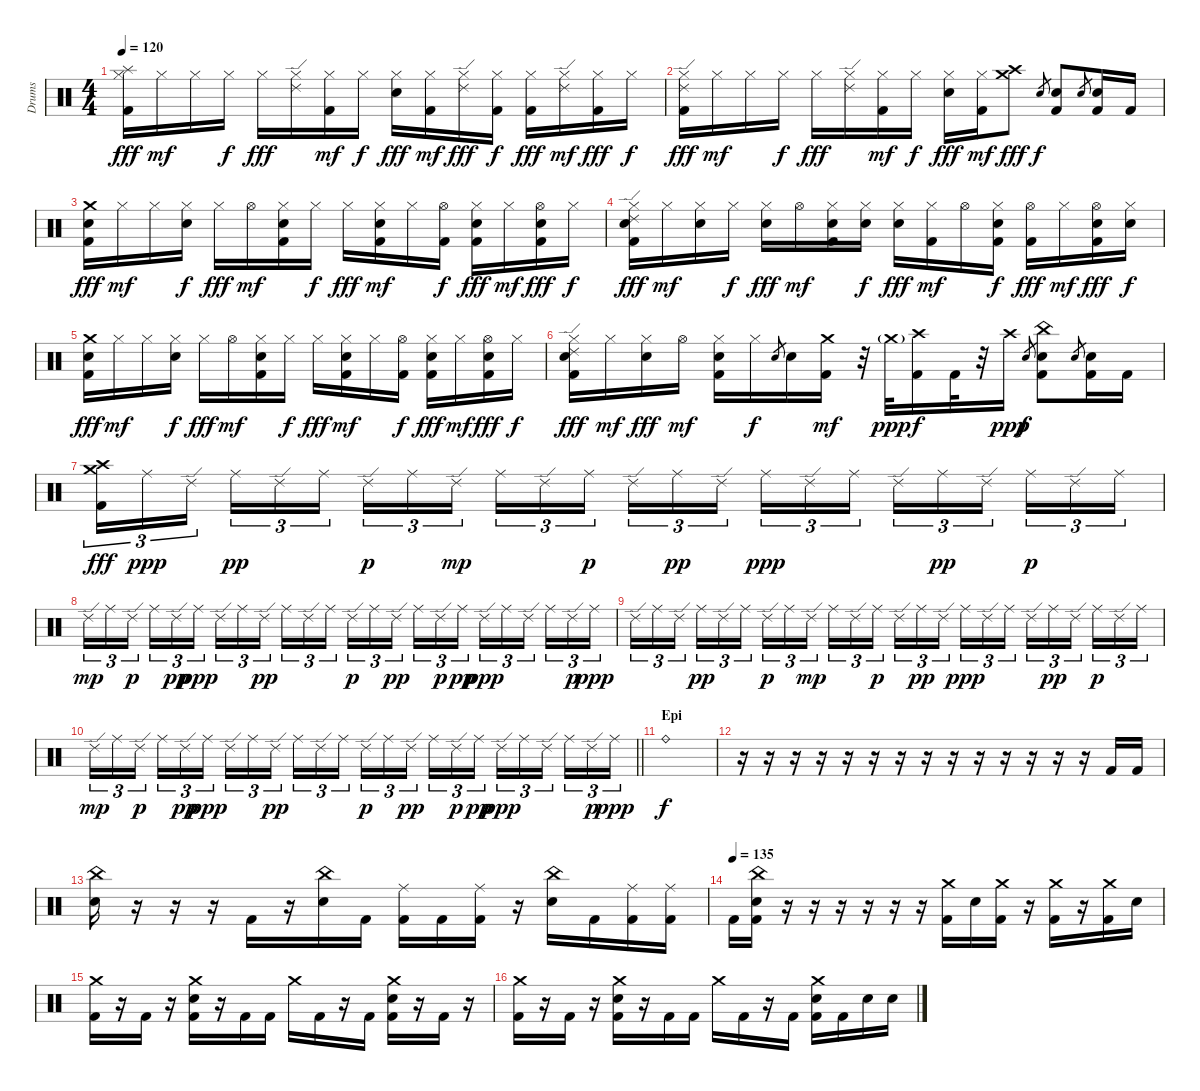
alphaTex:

\track ("Drums" "Drums") {instrument percussion}
\staff {score}
\articulation defaults
\ts (4 4)
\tempo 120
\clef neutral
\ks c
("Hi-Hat (closed)" "Splash (hit)" "Kick (hit) 2").16{dy fff} "Hi-Hat (closed)".16{dy mf} "Hi-Hat (closed)".16 "Hi-Hat (closed)".16{dy f} "Hi-Hat (closed)".16{dy fff} ("Hi-Hat (closed)" "Ride (edge) 2").16 ("Hi-Hat (closed)" "Kick (hit) 2").16{dy mf} "Hi-Hat (closed)".16{dy f} ("Hi-Hat (closed)" "Electric Snare (hit)").16{dy fff} ("Hi-Hat (closed)" "Kick (hit) 2").16{dy mf} ("Hi-Hat (closed)" "Ride (edge) 2").16{dy fff} ("Hi-Hat (closed)" "Kick (hit) 2").16{dy f} ("Hi-Hat (closed)" "Kick (hit) 2").16{dy fff} ("Hi-Hat (closed)" "Ride (edge) 2").16{dy mf} ("Hi-Hat (closed)" "Kick (hit) 2").16{dy fff} "Hi-Hat (closed)".16{dy f} |
("Hi-Hat (closed)" "Ride (edge) 2" "Kick (hit) 2").16{dy fff} "Hi-Hat (closed)".16{dy mf} "Hi-Hat (closed)".16 "Hi-Hat (closed)".16{dy f} "Hi-Hat (closed)".16{dy fff} ("Hi-Hat (closed)" "Ride (edge) 2").16 ("Hi-Hat (closed)" "Kick (hit) 2").16{dy mf} "Hi-Hat (closed)".16{dy f} ("Hi-Hat (closed)" "Electric Snare (hit)").16{dy fff} ("Hi-Hat (closed)" "Kick (hit) 2").16{dy mf} ("Crash medium (hit)" "Crash high (hit)").8{dy fff} "Electric Snare (hit)".8{gr dy f} ("Electric Snare (hit)" "Kick (hit) 2").8 "Electric Snare (hit)".8{gr} ("Electric Snare (hit)" "Kick (hit) 2").16 "Kick (hit) 2".16 |
("Crash medium (hit)" "Electric Snare (hit)" "Kick (hit) 2").16{dy fff} "Hi-Hat (closed)".16{dy mf} "Hi-Hat (closed)".16 ("Hi-Hat (closed)" "Electric Snare (hit)").16{dy f} "Hi-Hat (closed)".16{dy fff} "Hi-Hat (open)".16{dy mf} ("Hi-Hat (closed)" "Electric Snare (hit)" "Kick (hit) 2").16 "Hi-Hat (closed)".16{dy f} "Hi-Hat (closed)".16{dy fff} ("Hi-Hat (closed)" "Electric Snare (hit)" "Kick (hit) 2").16{dy mf} "Hi-Hat (closed)".16 ("Hi-Hat (open)" "Kick (hit) 2").16{dy f} ("Hi-Hat (closed)" "Electric Snare (hit)" "Kick (hit) 2").16{dy fff} "Hi-Hat (closed)".16{dy mf} ("Hi-Hat (open)" "Electric Snare (hit)" "Kick (hit) 2").16{dy fff} "Hi-Hat (closed)".16{dy f} |
("Hi-Hat (closed)" "Ride (edge) 2" "Electric Snare (hit)" "Kick (hit) 2").16{dy fff} "Hi-Hat (closed)".16{dy mf} ("Hi-Hat (closed)" "Electric Snare (hit)").16 "Hi-Hat (closed)".16{dy f} ("Hi-Hat (closed)" "Electric Snare (hit)").16{dy fff} "Hi-Hat (open)".16{dy mf} ("Hi-Hat (closed)" "Electric Snare (hit)" "Kick (hit) 2").16 ("Hi-Hat (closed)" "Electric Snare (hit)").16{dy f} ("Hi-Hat (closed)" "Electric Snare (hit)").16{dy fff} ("Hi-Hat (closed)" "Kick (hit) 2").16{dy mf} "Hi-Hat (open)".16 ("Hi-Hat (closed)" "Electric Snare (hit)" "Kick (hit) 2").16{dy f} ("Hi-Hat (open)" "Kick (hit) 2").16{dy fff} "Hi-Hat (closed)".16{dy mf} ("Hi-Hat (open)" "Electric Snare (hit)" "Kick (hit) 2").16{dy fff} ("Hi-Hat (closed)" "Electric Snare (hit)").16{dy f} |
("Crash medium (hit)" "Electric Snare (hit)" "Kick (hit) 2").16{dy fff} "Hi-Hat (closed)".16{dy mf} "Hi-Hat (closed)".16 ("Hi-Hat (closed)" "Electric Snare (hit)").16{dy f} "Hi-Hat (closed)".16{dy fff} "Hi-Hat (open)".16{dy mf} ("Hi-Hat (closed)" "Electric Snare (hit)" "Kick (hit) 2").16 "Hi-Hat (closed)".16{dy f} "Hi-Hat (closed)".16{dy fff} ("Hi-Hat (closed)" "Electric Snare (hit)" "Kick (hit) 2").16{dy mf} "Hi-Hat (closed)".16 ("Hi-Hat (open)" "Kick (hit) 2").16{dy f} ("Hi-Hat (closed)" "Electric Snare (hit)" "Kick (hit) 2").16{dy fff} "Hi-Hat (closed)".16{dy mf} ("Hi-Hat (open)" "Electric Snare (hit)" "Kick (hit) 2").16{dy fff} "Hi-Hat (closed)".16{dy f} |
("Hi-Hat (closed)" "Ride (edge) 2" "Electric Snare (hit)" "Kick (hit) 2").16{dy fff} "Hi-Hat (closed)".16{dy mf} ("Hi-Hat (closed)" "Electric Snare (hit)").16{dy fff} "Hi-Hat (open)".16{dy mf} ("Hi-Hat (closed)" "Electric Snare (hit)" "Kick (hit) 2").16 "Hi-Hat (closed)".16{dy f} "Electric Snare (hit)".8{gr} "Electric Snare (hit)".16 ("Crash medium (hit)" "Kick (hit) 2").16{dy mf} r.32 "Crash medium (hit)"{g}.32{dy ppp} ("Crash high (hit)" "Kick (hit) 2").16{dy f} "Kick (hit) 2".32 r.32 "Crash high (hit)".16{dy ppp} "Electric Snare (hit)".8{gr dy f} ("China (hit)" "Electric Snare (hit)" "Kick (hit) 2").8 "Electric Snare (hit)".8{gr} ("Electric Snare (hit)" "Kick (hit) 2").16 "Kick (hit) 2".16 |
("Crash high (hit)" "Crash medium (hit)" "Kick (hit) 2").16{tu (3 2) dy fff} "Ride (middle)".16{tu (3 2) dy ppp} "Ride (edge) 2".16{tu (3 2) beam splitsecondary} "Ride (middle)".16{tu (3 2) dy pp} "Ride (edge) 2".16{tu (3 2)} "Ride (middle)".16{tu (3 2)} "Ride (edge) 2".16{tu (3 2) dy p} "Ride (middle)".16{tu (3 2)} "Ride (edge) 2".16{tu (3 2) dy mp beam splitsecondary} "Ride (middle)".16{tu (3 2)} "Ride (edge) 2".16{tu (3 2)} "Ride (middle)".16{tu (3 2) dy p} "Ride (edge) 2".16{tu (3 2)} "Ride (middle)".16{tu (3 2) dy pp} "Ride (edge) 2".16{tu (3 2) beam splitsecondary} "Ride (middle)".16{tu (3 2) dy ppp} "Ride (edge) 2".16{tu (3 2)} "Ride (middle)".16{tu (3 2)} "Ride (edge) 2".16{tu (3 2)} "Ride (middle)".16{tu (3 2) dy pp} "Ride (edge) 2".16{tu (3 2) beam splitsecondary} "Ride (middle)".16{tu (3 2) dy p} "Ride (edge) 2".16{tu (3 2)} "Ride (middle)".16{tu (3 2)} |
"Ride (edge) 2".16{tu (3 2) dy mp} "Ride (middle)".16{tu (3 2)} "Ride (edge) 2".16{tu (3 2) dy p beam splitsecondary} "Ride (middle)".16{tu (3 2)} "Ride (edge) 2".16{tu (3 2) dy pp} "Ride (middle)".16{tu (3 2) dy ppp} "Ride (edge) 2".16{tu (3 2)} "Ride (middle)".16{tu (3 2)} "Ride (edge) 2".16{tu (3 2) dy pp beam splitsecondary} "Ride (middle)".16{tu (3 2)} "Ride (edge) 2".16{tu (3 2)} "Ride (middle)".16{tu (3 2)} "Ride (edge) 2".16{tu (3 2) dy p} "Ride (middle)".16{tu (3 2)} "Ride (edge) 2".16{tu (3 2) dy pp beam splitsecondary} "Ride (middle)".16{tu (3 2)} "Ride (edge) 2".16{tu (3 2) dy p} "Ride (middle)".16{tu (3 2) dy pp} "Ride (edge) 2".16{tu (3 2) dy ppp} "Ride (middle)".16{tu (3 2)} "Ride (edge) 2".16{tu (3 2) beam splitsecondary} "Ride (middle)".16{tu (3 2)} "Ride (edge) 2".16{tu (3 2) dy p} "Ride (middle)".16{tu (3 2) dy ppp} |
"Ride (edge) 2".16{tu (3 2)} "Ride (middle)".16{tu (3 2)} "Ride (edge) 2".16{tu (3 2) beam splitsecondary} "Ride (middle)".16{tu (3 2) dy pp} "Ride (edge) 2".16{tu (3 2)} "Ride (middle)".16{tu (3 2)} "Ride (edge) 2".16{tu (3 2) dy p} "Ride (middle)".16{tu (3 2)} "Ride (edge) 2".16{tu (3 2) dy mp beam splitsecondary} "Ride (middle)".16{tu (3 2)} "Ride (edge) 2".16{tu (3 2)} "Ride (middle)".16{tu (3 2) dy p} "Ride (edge) 2".16{tu (3 2)} "Ride (middle)".16{tu (3 2) dy pp} "Ride (edge) 2".16{tu (3 2) beam splitsecondary} "Ride (middle)".16{tu (3 2) dy ppp} "Ride (edge) 2".16{tu (3 2)} "Ride (middle)".16{tu (3 2)} "Ride (edge) 2".16{tu (3 2)} "Ride (middle)".16{tu (3 2) dy pp} "Ride (edge) 2".16{tu (3 2) beam splitsecondary} "Ride (middle)".16{tu (3 2) dy p} "Ride (edge) 2".16{tu (3 2)} "Ride (middle)".16{tu (3 2)} |
\barLineRight lightlight "Ride (edge) 2".16{tu (3 2) dy mp} "Ride (middle)".16{tu (3 2)} "Ride (edge) 2".16{tu (3 2) dy p beam splitsecondary} "Ride (middle)".16{tu (3 2)} "Ride (edge) 2".16{tu (3 2) dy pp} "Ride (middle)".16{tu (3 2) dy ppp} "Ride (edge) 2".16{tu (3 2)} "Ride (middle)".16{tu (3 2)} "Ride (edge) 2".16{tu (3 2) dy pp beam splitsecondary} "Ride (middle)".16{tu (3 2)} "Ride (edge) 2".16{tu (3 2)} "Ride (middle)".16{tu (3 2)} "Ride (edge) 2".16{tu (3 2) dy p} "Ride (middle)".16{tu (3 2)} "Ride (edge) 2".16{tu (3 2) dy pp beam splitsecondary} "Ride (middle)".16{tu (3 2)} "Ride (edge) 2".16{tu (3 2) dy p} "Ride (middle)".16{tu (3 2) dy pp} "Ride (edge) 2".16{tu (3 2) dy ppp} "Ride (middle)".16{tu (3 2)} "Ride (edge) 2".16{tu (3 2) beam splitsecondary} "Ride (middle)".16{tu (3 2)} "Ride (edge) 2".16{tu (3 2) dy p} "Ride (middle)".16{tu (3 2) dy ppp}
|
\section ("" "Epi")
"Ride (bell)".1{dy f} |
r.16 r.16 r.16 r.16 r.16 r.16 r.16 r.16 r.16 r.16 r.16 r.16 r.16 r.16 "Kick (hit) 2".16 "Kick (hit) 2".16 |
("China (hit)" "Electric Snare (hit)").16 r.16 r.16 r.16 "Kick (hit) 2".16 r.16 ("China (hit)" "Electric Snare (hit)").16 "Kick (hit) 2".16 ("Ride (middle)" "Kick (hit) 2").16 "Kick (hit) 2".16 ("Ride (middle)" "Kick (hit) 2").16 r.16 ("China (hit)" "Electric Snare (hit)").16 "Kick (hit) 2".16 ("Ride (middle)" "Kick (hit) 2").16 ("Ride (middle)" "Kick (hit) 2").16 |
\tempo (135)
"Kick (hit) 2".16 ("China (hit)" "Electric Snare (hit)" "Kick (hit) 2").16 r.16 r.16 r.16 r.16 r.16 r.16 ("Crash medium (hit)" "Kick (hit) 2").16 "Electric Snare (hit)".16 ("Crash medium (hit)" "Kick (hit) 2").16 r.16 ("Crash medium (hit)" "Kick (hit) 2").16 r.16 ("Crash medium (hit)" "Kick (hit) 2").16 "Electric Snare (hit)".16 |
("Crash medium (hit)" "Kick (hit) 2").16 r.16 "Kick (hit) 2".16 r.16 ("Crash medium (hit)" "Electric Snare (hit)" "Kick (hit) 2").16 r.16 "Kick (hit) 2".16 "Kick (hit) 2".16 "Crash medium (hit)".16 "Kick (hit) 2".16 r.16 "Kick (hit) 2".16 ("Crash medium (hit)" "Electric Snare (hit)" "Kick (hit) 2").16 r.16 "Kick (hit) 2".16 r.16 |
("Crash medium (hit)" "Kick (hit) 2").16 r.16 "Kick (hit) 2".16 r.16 ("Crash medium (hit)" "Electric Snare (hit)" "Kick (hit) 2").16 r.16 "Kick (hit) 2".16 "Kick (hit) 2".16 "Crash medium (hit)".16 "Kick (hit) 2".16 r.16 "Kick (hit) 2".16 ("Crash medium (hit)" "Electric Snare (hit)" "Kick (hit) 2").16 "Kick (hit) 2".16 "Electric Snare (hit)".16 "Electric Snare (hit)".16
